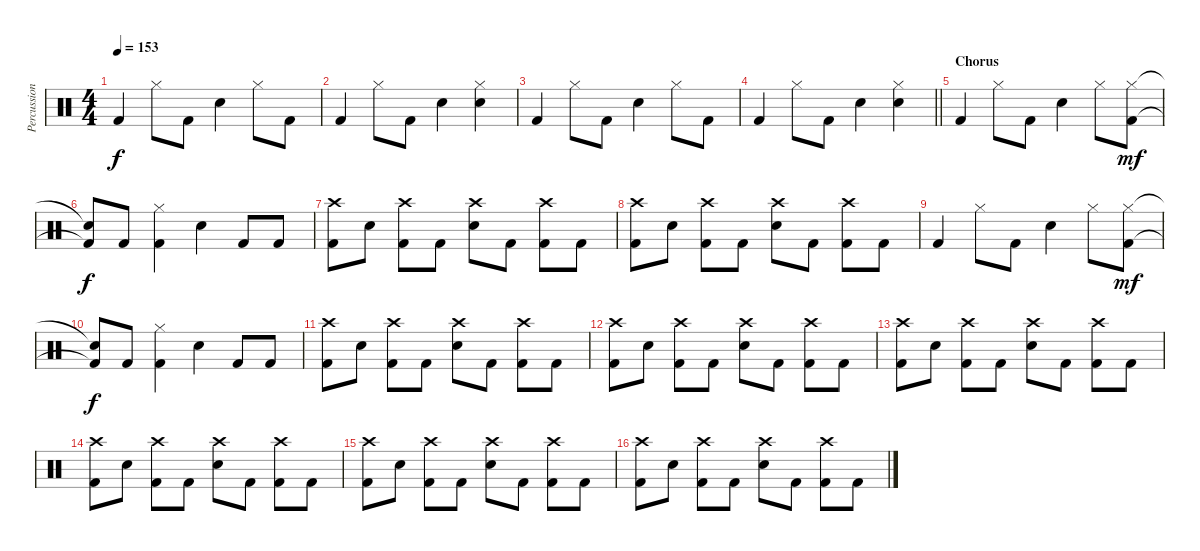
\track ("Percussion" "Percussion") {instrument percussion}
\staff {score}
\articulation defaults
\ts (4 4)
\tempo 153
\clef neutral
\ks c "Kick (hit) 2".4{dy f} "Hi-Hat (closed)".8 "Kick (hit) 2".8 "Snare (hit) 2".4 "Hi-Hat (closed)".8 "Kick (hit) 2".8
|
"Kick (hit) 2".4 "Hi-Hat (closed)".8 "Kick (hit) 2".8 "Snare (hit) 2".4 ("Snare (hit) 2" "Hi-Hat (closed)").4 |
"Kick (hit) 2".4 "Hi-Hat (closed)".8 "Kick (hit) 2".8 "Snare (hit) 2".4 "Hi-Hat (closed)".8 "Kick (hit) 2".8 |
\barLineRight lightlight "Kick (hit) 2".4 "Hi-Hat (closed)".8 "Kick (hit) 2".8 "Snare (hit) 2".4
("Snare (hit) 2" "Hi-Hat (closed)").4 |
\section ("" "Chorus")
"Kick (hit) 2".4 "Hi-Hat (closed)".8 "Kick (hit) 2".8 "Snare (hit) 2".4 "Hi-Hat (closed)".8 ("Kick (hit) 2" "Hi-Hat (closed)").8{dy mf} |
("Kick (hit) 2"{t} "Snare (hit)"{t}).8{dy f} "Kick (hit) 2".8 ("Kick (hit) 2" "Hi-Hat (closed)").4 "Snare (hit) 2".4 "Kick (hit) 2".8 "Kick (hit) 2".8 |
("Kick (hit) 2" "Crash high (hit)").8 "Snare (hit) 2".8 ("Kick (hit) 2" "Crash high (hit)").8 "Kick (hit) 2".8 ("Snare (hit) 2" "Crash high (hit)").8 "Kick (hit) 2".8 ("Kick (hit) 2" "Crash high (hit)").8 "Kick (hit) 2".8 |
("Kick (hit) 2" "Crash high (hit)").8 "Snare (hit) 2".8 ("Kick (hit) 2" "Crash high (hit)").8 "Kick (hit) 2".8 ("Snare (hit) 2" "Crash high (hit)").8 "Kick (hit) 2".8 ("Kick (hit) 2" "Crash high (hit)").8 "Kick (hit) 2".8 |
"Kick (hit) 2".4 "Hi-Hat (closed)".8 "Kick (hit) 2".8 "Snare (hit) 2".4 "Hi-Hat (closed)".8 ("Kick (hit) 2" "Hi-Hat (closed)").8{dy mf} |
("Kick (hit) 2"{t} "Snare (hit)"{t}).8{dy f} "Kick (hit) 2".8 ("Kick (hit) 2" "Hi-Hat (closed)").4 "Snare (hit) 2".4 "Kick (hit) 2".8 "Kick (hit) 2".8 |
("Kick (hit) 2" "Crash high (hit)").8 "Snare (hit) 2".8 ("Kick (hit) 2" "Crash high (hit)").8 "Kick (hit) 2".8 ("Snare (hit) 2" "Crash high (hit)").8 "Kick (hit) 2".8 ("Kick (hit) 2" "Crash high (hit)").8 "Kick (hit) 2".8 |
("Kick (hit) 2" "Crash high (hit)").8 "Snare (hit) 2".8 ("Kick (hit) 2" "Crash high (hit)").8 "Kick (hit) 2".8 ("Snare (hit) 2" "Crash high (hit)").8 "Kick (hit) 2".8 ("Kick (hit) 2" "Crash high (hit)").8 "Kick (hit) 2".8 |
("Kick (hit) 2" "Crash high (hit)").8 "Snare (hit) 2".8 ("Kick (hit) 2" "Crash high (hit)").8 "Kick (hit) 2".8 ("Snare (hit) 2" "Crash high (hit)").8 "Kick (hit) 2".8 ("Kick (hit) 2" "Crash high (hit)").8 "Kick (hit) 2".8 |
("Kick (hit) 2" "Crash high (hit)").8 "Snare (hit) 2".8 ("Kick (hit) 2" "Crash high (hit)").8 "Kick (hit) 2".8 ("Snare (hit) 2" "Crash high (hit)").8 "Kick (hit) 2".8 ("Kick (hit) 2" "Crash high (hit)").8 "Kick (hit) 2".8 |
("Kick (hit) 2" "Crash high (hit)").8 "Snare (hit) 2".8 ("Kick (hit) 2" "Crash high (hit)").8 "Kick (hit) 2".8 ("Snare (hit) 2" "Crash high (hit)").8 "Kick (hit) 2".8 ("Kick (hit) 2" "Crash high (hit)").8 "Kick (hit) 2".8 |
("Kick (hit) 2" "Crash high (hit)").8 "Snare (hit) 2".8 ("Kick (hit) 2" "Crash high (hit)").8 "Kick (hit) 2".8 ("Snare (hit) 2" "Crash high (hit)").8 "Kick (hit) 2".8 ("Kick (hit) 2" "Crash high (hit)").8 "Kick (hit) 2".8
